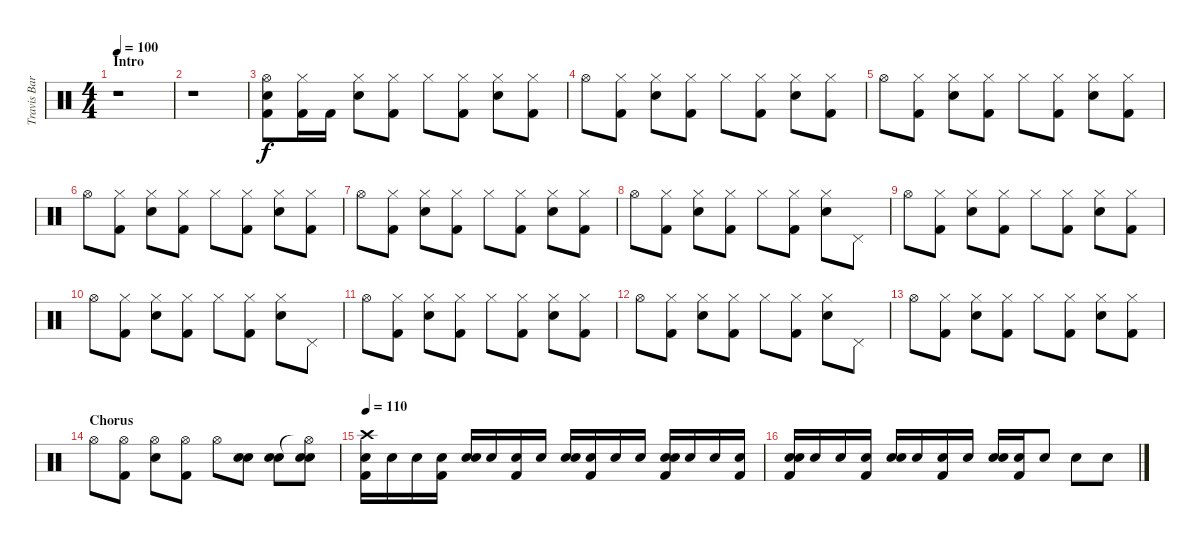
\track ("Travis Barker (Bateria)" "Travis Bar") {instrument percussion}
\staff {score}
\articulation defaults
\ts (4 4)
\section ("" "Intro")
\tempo 100
\clef neutral
\ks c
r.1{dy f} |
r.1 |
("Hi-Hat (open)" "Electric Snare (hit)" "Kick (hit) 2").8 ("Hi-Hat (closed)" "Kick (hit) 2").16 "Kick (hit) 2".16 ("Hi-Hat (closed)" "Electric Snare (hit)").8 ("Hi-Hat (closed)" "Kick (hit) 2").8 "Hi-Hat (closed)".8 ("Hi-Hat (closed)" "Kick (hit) 2").8 ("Hi-Hat (closed)" "Electric Snare (hit)").8 ("Hi-Hat (closed)" "Kick (hit) 2").8 |
"Hi-Hat (open)".8 ("Hi-Hat (closed)" "Kick (hit) 2").8 ("Hi-Hat (closed)" "Electric Snare (hit)").8 ("Hi-Hat (closed)" "Kick (hit) 2").8 "Hi-Hat (closed)".8 ("Hi-Hat (closed)" "Kick (hit) 2").8 ("Hi-Hat (closed)" "Electric Snare (hit)").8 ("Hi-Hat (closed)" "Kick (hit) 2").8 |
"Hi-Hat (open)".8 ("Hi-Hat (closed)" "Kick (hit) 2").8 ("Hi-Hat (closed)" "Electric Snare (hit)").8 ("Hi-Hat (closed)" "Kick (hit) 2").8 "Hi-Hat (closed)".8 ("Hi-Hat (closed)" "Kick (hit) 2").8 ("Hi-Hat (closed)" "Electric Snare (hit)").8 ("Hi-Hat (closed)" "Kick (hit) 2").8 |
"Hi-Hat (open)".8 ("Hi-Hat (closed)" "Kick (hit) 2").8 ("Hi-Hat (closed)" "Electric Snare (hit)").8 ("Hi-Hat (closed)" "Kick (hit) 2").8 "Hi-Hat (closed)".8 ("Hi-Hat (closed)" "Kick (hit) 2").8 ("Hi-Hat (closed)" "Electric Snare (hit)").8 ("Hi-Hat (closed)" "Kick (hit) 2").8 |
"Hi-Hat (open)".8 ("Hi-Hat (closed)" "Kick (hit) 2").8 ("Hi-Hat (closed)" "Electric Snare (hit)").8 ("Hi-Hat (closed)" "Kick (hit) 2").8 "Hi-Hat (closed)".8 ("Hi-Hat (closed)" "Kick (hit) 2").8 ("Hi-Hat (closed)" "Electric Snare (hit)").8 ("Hi-Hat (closed)" "Kick (hit) 2").8 |
"Hi-Hat (open)".8 ("Hi-Hat (closed)" "Kick (hit) 2").8 ("Hi-Hat (closed)" "Electric Snare (hit)").8 ("Hi-Hat (closed)" "Kick (hit) 2").8 "Hi-Hat (closed)".8 ("Hi-Hat (closed)" "Kick (hit) 2").8 ("Hi-Hat (closed)" "Electric Snare (hit)").8 "Pedal Hi-Hat (hit)".8 |
"Hi-Hat (open)".8 ("Hi-Hat (closed)" "Kick (hit) 2").8 ("Hi-Hat (closed)" "Electric Snare (hit)").8 ("Hi-Hat (closed)" "Kick (hit) 2").8 "Hi-Hat (closed)".8 ("Hi-Hat (closed)" "Kick (hit) 2").8 ("Hi-Hat (closed)" "Electric Snare (hit)").8 ("Hi-Hat (closed)" "Kick (hit) 2").8 |
"Hi-Hat (open)".8 ("Hi-Hat (closed)" "Kick (hit) 2").8 ("Hi-Hat (closed)" "Electric Snare (hit)").8 ("Hi-Hat (closed)" "Kick (hit) 2").8 "Hi-Hat (closed)".8 ("Hi-Hat (closed)" "Kick (hit) 2").8 ("Hi-Hat (closed)" "Electric Snare (hit)").8 "Pedal Hi-Hat (hit)".8 |
"Hi-Hat (open)".8 ("Hi-Hat (closed)" "Kick (hit) 2").8 ("Hi-Hat (closed)" "Electric Snare (hit)").8 ("Hi-Hat (closed)" "Kick (hit) 2").8 "Hi-Hat (closed)".8 ("Hi-Hat (closed)" "Kick (hit) 2").8 ("Hi-Hat (closed)" "Electric Snare (hit)").8 ("Hi-Hat (closed)" "Kick (hit) 2").8 |
"Hi-Hat (open)".8 ("Hi-Hat (closed)" "Kick (hit) 2").8 ("Hi-Hat (closed)" "Electric Snare (hit)").8 ("Hi-Hat (closed)" "Kick (hit) 2").8 "Hi-Hat (closed)".8 ("Hi-Hat (closed)" "Kick (hit) 2").8 ("Hi-Hat (closed)" "Electric Snare (hit)").8 "Pedal Hi-Hat (hit)".8 |
"Hi-Hat (open)".8 ("Hi-Hat (closed)" "Kick (hit) 2").8 ("Hi-Hat (closed)" "Electric Snare (hit)").8 ("Hi-Hat (closed)" "Kick (hit) 2").8 "Hi-Hat (closed)".8 ("Hi-Hat (closed)" "Kick (hit) 2").8 ("Hi-Hat (closed)" "Electric Snare (hit)").8 ("Hi-Hat (closed)" "Kick (hit) 2").8 |
\section ("" "Chorus")
"Hi-Hat (open)".8 ("Hi-Hat (open)" "Kick (hit) 2").8 ("Hi-Hat (open)" "Electric Snare (hit)").8 ("Hi-Hat (open)" "Kick (hit) 2").8 "Hi-Hat (open)".8 ("Electric Snare (hit)" "Electric Snare (hit)").8 ("Electric Snare (hit)" "Electric Snare (hit)").8 ("Hi-Hat (open)"{t} "Electric Snare (hit)" "Electric Snare (hit)").8 |
\tempo 110
("Crash high (hit)" "Electric Snare (hit)" "Kick (hit) 2").16 "Electric Snare (hit)".16 "Electric Snare (hit)".16 ("Electric Snare (hit)" "Kick (hit) 2").16 ("Electric Snare (hit)" "Electric Snare (hit)").16 "Electric Snare (hit)".16 ("Electric Snare (hit)" "Kick (hit) 2").16 "Electric Snare (hit)".16 ("Electric Snare (hit)" "Electric Snare (hit)").16 ("Electric Snare (hit)" "Kick (hit) 2").16 "Electric Snare (hit)".16 "Electric Snare (hit)".16 ("Electric Snare (hit)" "Electric Snare (hit)" "Kick (hit) 2").16 "Electric Snare (hit)".16 "Electric Snare (hit)".16 ("Electric Snare (hit)" "Kick (hit) 2").16 |
("Electric Snare (hit)" "Electric Snare (hit)" "Kick (hit) 2").16 "Electric Snare (hit)".16 "Electric Snare (hit)".16 ("Electric Snare (hit)" "Kick (hit) 2").16 ("Electric Snare (hit)" "Electric Snare (hit)").16 "Electric Snare (hit)".16 ("Electric Snare (hit)" "Kick (hit) 2").16 "Electric Snare (hit)".16 ("Electric Snare (hit)" "Electric Snare (hit)").16 ("Electric Snare (hit)" "Kick (hit) 2").16 "Electric Snare (hit)".8 "Electric Snare (hit)".8 "Electric Snare (hit)".8
